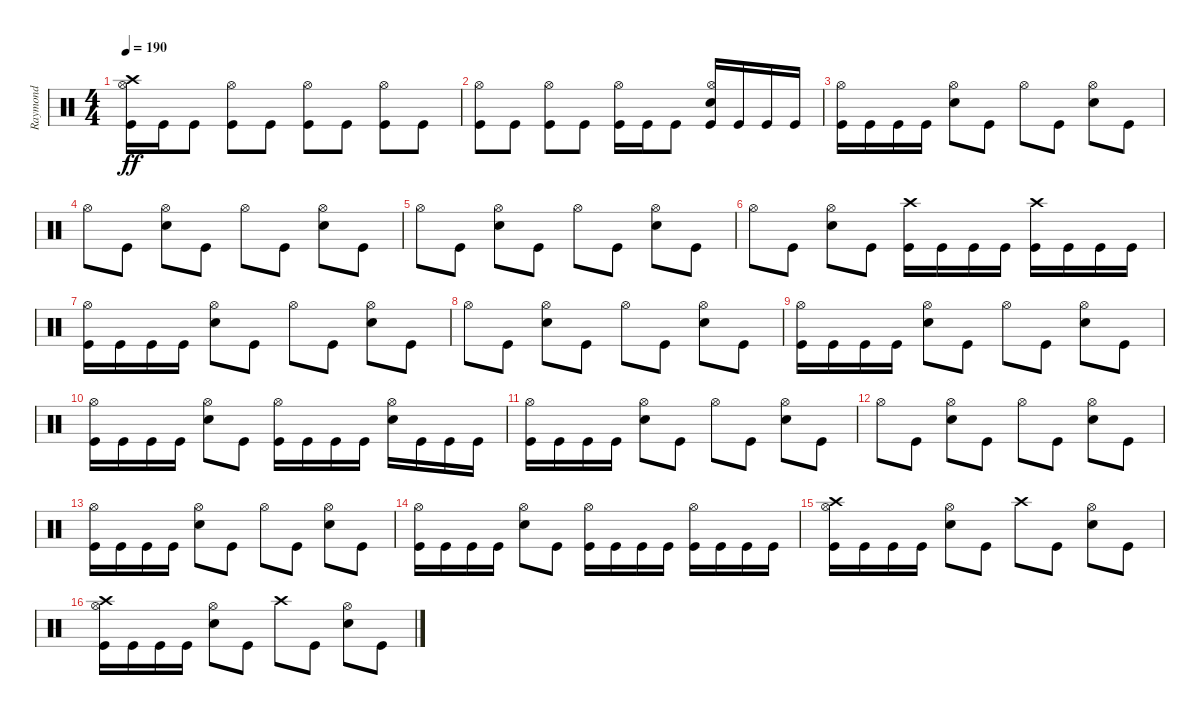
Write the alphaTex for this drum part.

\track ("Raymond" "Raymond") {instrument percussion}
\staff {score}
\articulation defaults
\ts (4 4)
\tempo 190
\clef neutral
\ks c
("Kick (hit)" "Hi-Hat (open)" "Crash high (hit)").16{dy ff} "Kick (hit)".16 "Kick (hit)".8 ("Kick (hit)" "Hi-Hat (open)").8 "Kick (hit)".8 ("Kick (hit)" "Hi-Hat (open)").8 "Kick (hit)".8 ("Kick (hit)" "Hi-Hat (open)").8 "Kick (hit)".8 |
("Kick (hit)" "Hi-Hat (open)").8 "Kick (hit)".8 ("Kick (hit)" "Hi-Hat (open)").8 "Kick (hit)".8 ("Kick (hit)" "Hi-Hat (open)").16 "Kick (hit)".16 "Kick (hit)".8 ("Kick (hit)" "Snare (hit) 2" "Hi-Hat (open)").16 "Kick (hit)".16 "Kick (hit)".16 "Kick (hit)".16 |
("Kick (hit)" "Hi-Hat (open)").16 "Kick (hit)".16 "Kick (hit)".16 "Kick (hit)".16 ("Snare (hit) 2" "Hi-Hat (open)").8 "Kick (hit)".8 "Hi-Hat (open)".8 "Kick (hit)".8 ("Snare (hit) 2" "Hi-Hat (open)").8 "Kick (hit)".8 |
"Hi-Hat (open)".8 "Kick (hit)".8 ("Snare (hit) 2" "Hi-Hat (open)").8 "Kick (hit)".8 "Hi-Hat (open)".8 "Kick (hit)".8 ("Snare (hit) 2" "Hi-Hat (open)").8 "Kick (hit)".8 |
"Hi-Hat (open)".8 "Kick (hit)".8 ("Snare (hit) 2" "Hi-Hat (open)").8 "Kick (hit)".8 "Hi-Hat (open)".8 "Kick (hit)".8 ("Snare (hit) 2" "Hi-Hat (open)").8 "Kick (hit)".8 |
"Hi-Hat (open)".8 "Kick (hit)".8 ("Snare (hit) 2" "Hi-Hat (open)").8 "Kick (hit)".8 ("Kick (hit)" "Crash high (hit)").16 "Kick (hit)".16 "Kick (hit)".16 "Kick (hit)".16 ("Kick (hit)" "Crash high (hit)").16 "Kick (hit)".16 "Kick (hit)".16 "Kick (hit)".16 |
("Kick (hit)" "Hi-Hat (open)").16 "Kick (hit)".16 "Kick (hit)".16 "Kick (hit)".16 ("Snare (hit) 2" "Hi-Hat (open)").8 "Kick (hit)".8 "Hi-Hat (open)".8 "Kick (hit)".8 ("Snare (hit) 2" "Hi-Hat (open)").8 "Kick (hit)".8 |
"Hi-Hat (open)".8 "Kick (hit)".8 ("Snare (hit) 2" "Hi-Hat (open)").8 "Kick (hit)".8 "Hi-Hat (open)".8 "Kick (hit)".8 ("Snare (hit) 2" "Hi-Hat (open)").8 "Kick (hit)".8 |
("Kick (hit)" "Hi-Hat (open)").16 "Kick (hit)".16 "Kick (hit)".16 "Kick (hit)".16 ("Snare (hit) 2" "Hi-Hat (open)").8 "Kick (hit)".8 "Hi-Hat (open)".8 "Kick (hit)".8 ("Snare (hit) 2" "Hi-Hat (open)").8 "Kick (hit)".8 |
("Kick (hit)" "Hi-Hat (open)").16 "Kick (hit)".16 "Kick (hit)".16 "Kick (hit)".16 ("Snare (hit) 2" "Hi-Hat (open)").8 "Kick (hit)".8 ("Kick (hit)" "Hi-Hat (open)").16 "Kick (hit)".16 "Kick (hit)".16 "Kick (hit)".16 ("Snare (hit) 2" "Hi-Hat (open)").16 "Kick (hit)".16 "Kick (hit)".16 "Kick (hit)".16 |
("Kick (hit)" "Hi-Hat (open)").16 "Kick (hit)".16 "Kick (hit)".16 "Kick (hit)".16 ("Snare (hit) 2" "Hi-Hat (open)").8 "Kick (hit)".8 "Hi-Hat (open)".8 "Kick (hit)".8 ("Snare (hit) 2" "Hi-Hat (open)").8 "Kick (hit)".8 |
"Hi-Hat (open)".8 "Kick (hit)".8 ("Snare (hit) 2" "Hi-Hat (open)").8 "Kick (hit)".8 "Hi-Hat (open)".8 "Kick (hit)".8 ("Snare (hit) 2" "Hi-Hat (open)").8 "Kick (hit)".8 |
("Kick (hit)" "Hi-Hat (open)").16 "Kick (hit)".16 "Kick (hit)".16 "Kick (hit)".16 ("Snare (hit) 2" "Hi-Hat (open)").8 "Kick (hit)".8 "Hi-Hat (open)".8 "Kick (hit)".8 ("Snare (hit) 2" "Hi-Hat (open)").8 "Kick (hit)".8 |
("Kick (hit)" "Hi-Hat (open)").16 "Kick (hit)".16 "Kick (hit)".16 "Kick (hit)".16 ("Snare (hit) 2" "Hi-Hat (open)").8 "Kick (hit)".8 ("Kick (hit)" "Hi-Hat (open)").16 "Kick (hit)".16 "Kick (hit)".16 "Kick (hit)".16 ("Kick (hit)" "Hi-Hat (open)").16 "Kick (hit)".16 "Kick (hit)".16 "Kick (hit)".16 |
("Kick (hit)" "Hi-Hat (open)" "Crash high (hit)").16 "Kick (hit)".16 "Kick (hit)".16 "Kick (hit)".16 ("Snare (hit) 2" "Hi-Hat (open)").8 "Kick (hit)".8 "Crash high (hit)".8 "Kick (hit)".8 ("Snare (hit) 2" "Hi-Hat (open)").8 "Kick (hit)".8 |
("Kick (hit)" "Hi-Hat (open)" "Crash high (hit)").16 "Kick (hit)".16 "Kick (hit)".16 "Kick (hit)".16 ("Snare (hit) 2" "Hi-Hat (open)").8 "Kick (hit)".8 "Crash high (hit)".8 "Kick (hit)".8 ("Snare (hit) 2" "Hi-Hat (open)").8 "Kick (hit)".8
